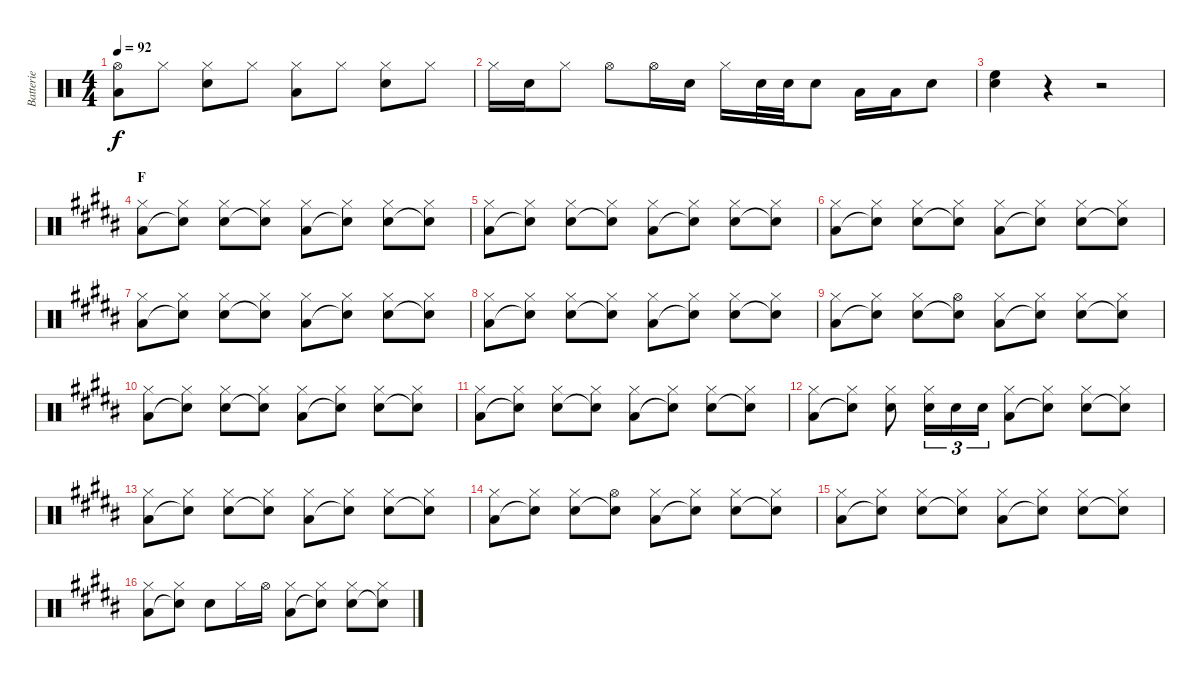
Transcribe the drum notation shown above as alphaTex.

\track ("Batterie" "Batterie") {instrument percussion}
\staff {score}
\articulation defaults
\ts (4 4)
\tempo 92
\clef neutral
\ks c
("Hi-Hat (open)" "Low Floor Tom (hit)").8{dy f} "Hi-Hat (closed)".8 ("Hi-Hat (closed)" "Snare (hit) 2").8 "Hi-Hat (closed)".8 ("Hi-Hat (closed)" "Low Floor Tom (hit)").8 "Hi-Hat (closed)".8 ("Hi-Hat (closed)" "Snare (hit) 2").8 "Hi-Hat (closed)".8 |
"Hi-Hat (closed)".16 "Electric Snare (hit)".16 "Hi-Hat (closed)".8 "Hi-Hat (open)".8 "Hi-Hat (open)".16 "Electric Snare (hit)".16 "Hi-Hat (closed)".16 "Electric Snare (hit)".32 "Electric Snare (hit)".32 "Electric Snare (hit)".8 "Low Tom (hit)".16 "Low Tom (hit)".16 "Snare (hit) 2".8 |
("High Floor Tom (hit)" "Snare (hit) 2").4 r.4 r.2 |
\section ("" "F")
\ks b
("Hi-Hat (closed)" "Low Floor Tom (hit)").8 ("Hi-Hat (closed)" "Snare (hit)"{t}).8 ("Hi-Hat (closed)" "Electric Snare (hit)").8 ("Hi-Hat (closed)" "Snare (hit)"{t}).8 ("Hi-Hat (closed)" "Low Floor Tom (hit)").8 ("Hi-Hat (closed)" "Snare (hit)"{t}).8 ("Hi-Hat (closed)" "Electric Snare (hit)").8 ("Hi-Hat (closed)" "Electric Snare (hit)"{t}).8 |
("Hi-Hat (closed)" "Low Floor Tom (hit)").8 ("Hi-Hat (closed)" "Snare (hit)"{t}).8 ("Hi-Hat (closed)" "Electric Snare (hit)").8 ("Hi-Hat (closed)" "Snare (hit)"{t}).8 ("Hi-Hat (closed)" "Low Floor Tom (hit)").8 ("Hi-Hat (closed)" "Snare (hit)"{t}).8 ("Hi-Hat (closed)" "Electric Snare (hit)").8 ("Hi-Hat (closed)" "Snare (hit)"{t}).8 |
("Hi-Hat (closed)" "Low Floor Tom (hit)").8 ("Hi-Hat (closed)" "Snare (hit)"{t}).8 ("Hi-Hat (closed)" "Electric Snare (hit)").8 ("Hi-Hat (closed)" "Snare (hit)"{t}).8 ("Hi-Hat (closed)" "Low Floor Tom (hit)").8 ("Hi-Hat (closed)" "Snare (hit)"{t}).8 ("Hi-Hat (closed)" "Electric Snare (hit)").8 ("Hi-Hat (closed)" "Snare (hit)"{t}).8 |
("Hi-Hat (closed)" "Low Floor Tom (hit)").8 ("Hi-Hat (closed)" "Snare (hit)"{t}).8 ("Hi-Hat (closed)" "Electric Snare (hit)").8 ("Hi-Hat (closed)" "Snare (hit)"{t}).8 ("Hi-Hat (closed)" "Low Floor Tom (hit)").8 ("Hi-Hat (closed)" "Snare (hit)"{t}).8 ("Hi-Hat (closed)" "Electric Snare (hit)").8 ("Hi-Hat (closed)" "Snare (hit)"{t}).8 |
("Hi-Hat (closed)" "Low Floor Tom (hit)").8 ("Hi-Hat (closed)" "Snare (hit)"{t}).8 ("Hi-Hat (closed)" "Electric Snare (hit)").8 ("Hi-Hat (closed)" "Snare (hit)"{t}).8 ("Hi-Hat (closed)" "Low Floor Tom (hit)").8 ("Hi-Hat (closed)" "Snare (hit)"{t}).8 ("Hi-Hat (closed)" "Electric Snare (hit)").8 ("Hi-Hat (closed)" "Snare (hit)"{t}).8 |
("Hi-Hat (closed)" "Low Floor Tom (hit)").8 ("Hi-Hat (closed)" "Snare (hit)"{t}).8 ("Hi-Hat (closed)" "Electric Snare (hit)").8 ("Hi-Hat (open)" "Snare (hit)"{t}).8 ("Hi-Hat (closed)" "Low Floor Tom (hit)").8 ("Hi-Hat (closed)" "Snare (hit)"{t}).8 ("Hi-Hat (closed)" "Electric Snare (hit)").8 ("Hi-Hat (closed)" "Snare (hit)"{t}).8 |
("Hi-Hat (closed)" "Low Floor Tom (hit)").8 ("Hi-Hat (closed)" "Snare (hit)"{t}).8 ("Hi-Hat (closed)" "Electric Snare (hit)").8 ("Hi-Hat (closed)" "Snare (hit)"{t}).8 ("Hi-Hat (closed)" "Low Floor Tom (hit)").8 ("Hi-Hat (closed)" "Snare (hit)"{t}).8 ("Hi-Hat (closed)" "Electric Snare (hit)").8 ("Hi-Hat (closed)" "Snare (hit)"{t}).8 |
("Hi-Hat (closed)" "Low Floor Tom (hit)").8 ("Hi-Hat (closed)" "Snare (hit)"{t}).8 ("Hi-Hat (closed)" "Electric Snare (hit)").8 ("Hi-Hat (closed)" "Snare (hit)"{t}).8 ("Hi-Hat (closed)" "Low Floor Tom (hit)").8 ("Hi-Hat (closed)" "Snare (hit)"{t}).8 ("Hi-Hat (closed)" "Electric Snare (hit)").8 ("Hi-Hat (closed)" "Snare (hit)"{t}).8 |
("Hi-Hat (closed)" "Low Floor Tom (hit)").8 ("Hi-Hat (closed)" "Snare (hit)"{t}).8 ("Hi-Hat (closed)" "Electric Snare (hit)").8 ("Hi-Hat (closed)" "Electric Snare (hit)").16{tu (3 2)} "Electric Snare (hit)".16{tu (3 2)} "Electric Snare (hit)".16{tu (3 2)} ("Hi-Hat (closed)" "Low Floor Tom (hit)").8 ("Hi-Hat (closed)" "Snare (hit)"{t}).8 ("Hi-Hat (closed)" "Snare (hit) 2").8 ("Hi-Hat (closed)" "Snare (hit)"{t}).8 |
("Hi-Hat (closed)" "Low Floor Tom (hit)").8 ("Hi-Hat (closed)" "Snare (hit)"{t}).8 ("Hi-Hat (closed)" "Electric Snare (hit)").8 ("Hi-Hat (closed)" "Snare (hit)"{t}).8 ("Hi-Hat (closed)" "Low Floor Tom (hit)").8 ("Hi-Hat (closed)" "Snare (hit)"{t}).8 ("Hi-Hat (closed)" "Electric Snare (hit)").8 ("Hi-Hat (closed)" "Snare (hit)"{t}).8 |
("Hi-Hat (closed)" "Low Floor Tom (hit)").8 ("Hi-Hat (closed)" "Snare (hit)"{t}).8 ("Hi-Hat (closed)" "Electric Snare (hit)").8 ("Hi-Hat (open)" "Snare (hit)"{t}).8 ("Hi-Hat (closed)" "Low Floor Tom (hit)").8 ("Hi-Hat (closed)" "Snare (hit)"{t}).8 ("Hi-Hat (closed)" "Electric Snare (hit)").8 ("Hi-Hat (closed)" "Snare (hit)"{t}).8 |
("Hi-Hat (closed)" "Low Floor Tom (hit)").8 ("Hi-Hat (closed)" "Snare (hit)"{t}).8 ("Hi-Hat (closed)" "Electric Snare (hit)").8 ("Hi-Hat (closed)" "Snare (hit)"{t}).8 ("Hi-Hat (closed)" "Low Floor Tom (hit)").8 ("Hi-Hat (closed)" "Snare (hit)"{t}).8 ("Hi-Hat (closed)" "Electric Snare (hit)").8 ("Hi-Hat (closed)" "Snare (hit)"{t}).8 |
("Hi-Hat (closed)" "Low Floor Tom (hit)").8 ("Hi-Hat (closed)" "Snare (hit)"{t}).8 "Electric Snare (hit)".8 "Hi-Hat (closed)".16 "Hi-Hat (open)".16 ("Hi-Hat (closed)" "Low Floor Tom (hit)").8 ("Hi-Hat (closed)" "Snare (hit)"{t}).8 ("Hi-Hat (closed)" "Electric Snare (hit)").8 ("Hi-Hat (closed)" "Snare (hit)"{t}).8
